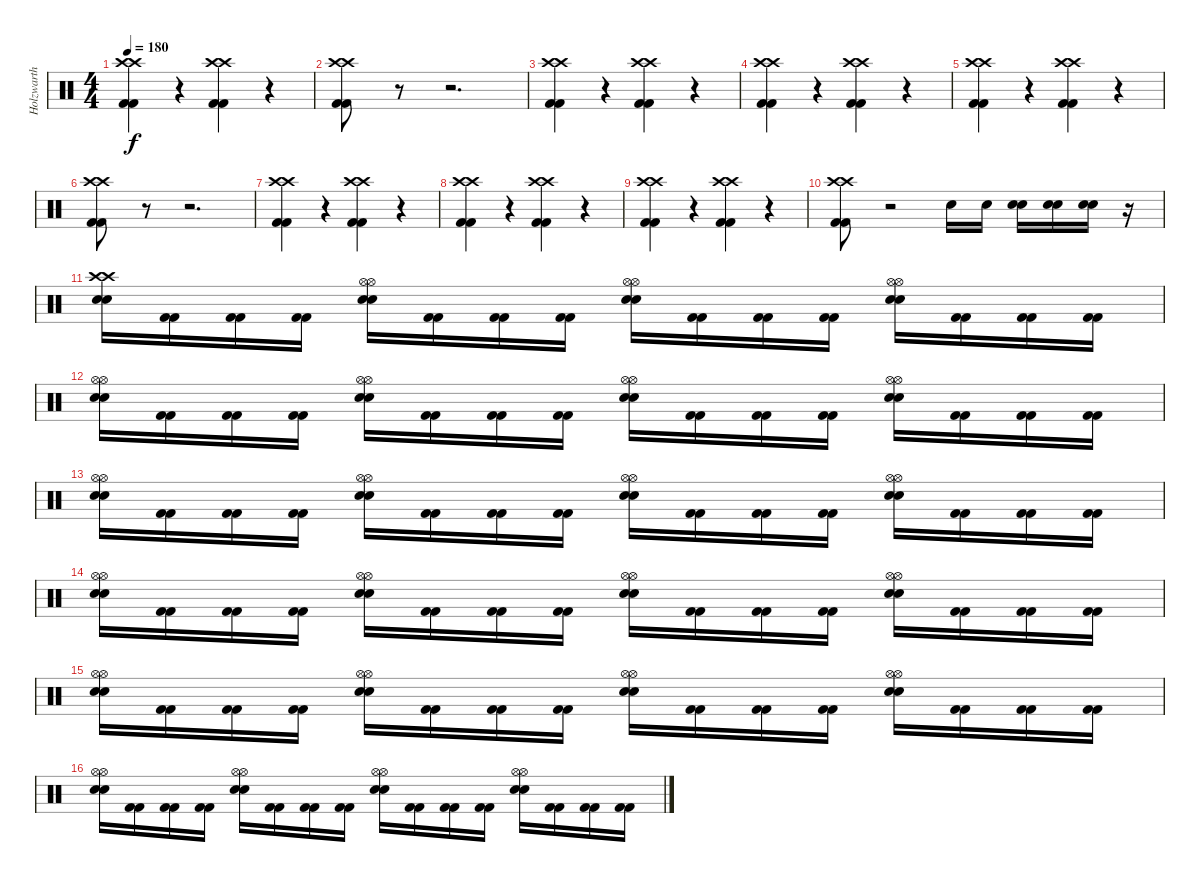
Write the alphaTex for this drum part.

\track ("Holzwarth" "Holzwarth") {instrument percussion}
\staff {score}
\articulation defaults
\ts (4 4)
\tempo 180
\clef neutral
\ks c
("Kick (hit) 2" "Kick (hit) 2" "Crash high (hit)" "Crash high (hit)").4{dy f} r.4 ("Kick (hit) 2" "Kick (hit) 2" "Crash high (hit)" "Crash high (hit)").4 r.4 |
("Kick (hit) 2" "Kick (hit) 2" "Crash high (hit)" "Crash high (hit)").8 r.8 r.2{d} |
("Kick (hit) 2" "Kick (hit) 2" "Crash high (hit)" "Crash high (hit)").4 r.4 ("Kick (hit) 2" "Kick (hit) 2" "Crash high (hit)" "Crash high (hit)").4 r.4 |
("Kick (hit) 2" "Kick (hit) 2" "Crash high (hit)" "Crash high (hit)").4 r.4 ("Kick (hit) 2" "Kick (hit) 2" "Crash high (hit)" "Crash high (hit)").4 r.4 |
("Kick (hit) 2" "Kick (hit) 2" "Crash high (hit)" "Crash high (hit)").4 r.4 ("Kick (hit) 2" "Kick (hit) 2" "Crash high (hit)" "Crash high (hit)").4 r.4 |
("Kick (hit) 2" "Kick (hit) 2" "Crash high (hit)" "Crash high (hit)").8 r.8 r.2{d} |
("Kick (hit) 2" "Kick (hit) 2" "Crash high (hit)" "Crash high (hit)").4 r.4 ("Kick (hit) 2" "Kick (hit) 2" "Crash high (hit)" "Crash high (hit)").4 r.4 |
("Kick (hit) 2" "Kick (hit) 2" "Crash high (hit)" "Crash high (hit)").4 r.4 ("Kick (hit) 2" "Kick (hit) 2" "Crash high (hit)" "Crash high (hit)").4 r.4 |
("Kick (hit) 2" "Kick (hit) 2" "Crash high (hit)" "Crash high (hit)").4 r.4 ("Kick (hit) 2" "Kick (hit) 2" "Crash high (hit)" "Crash high (hit)").4 r.4 |
("Kick (hit) 2" "Kick (hit) 2" "Crash high (hit)" "Crash high (hit)").8 r.2 "Snare (hit) 2".16 "Snare (hit) 2".16 ("Snare (hit) 2" "Snare (hit) 2").16 ("Snare (hit) 2" "Snare (hit) 2").16 ("Snare (hit) 2" "Snare (hit) 2").16 r.16 |
("Snare (hit) 2" "Snare (hit) 2" "Crash high (hit)" "Crash high (hit)").16 ("Kick (hit) 2" "Kick (hit) 2").16 ("Kick (hit) 2" "Kick (hit) 2").16 ("Kick (hit) 2" "Kick (hit) 2").16 ("Snare (hit) 2" "Snare (hit) 2" "Hi-Hat (open)" "Hi-Hat (open)").16 ("Kick (hit) 2" "Kick (hit) 2").16 ("Kick (hit) 2" "Kick (hit) 2").16 ("Kick (hit) 2" "Kick (hit) 2").16 ("Snare (hit) 2" "Snare (hit) 2" "Hi-Hat (open)" "Hi-Hat (open)").16 ("Kick (hit) 2" "Kick (hit) 2").16 ("Kick (hit) 2" "Kick (hit) 2").16 ("Kick (hit) 2" "Kick (hit) 2").16 ("Snare (hit) 2" "Snare (hit) 2" "Hi-Hat (open)" "Hi-Hat (open)").16 ("Kick (hit) 2" "Kick (hit) 2").16 ("Kick (hit) 2" "Kick (hit) 2").16 ("Kick (hit) 2" "Kick (hit) 2").16 |
("Snare (hit) 2" "Snare (hit) 2" "Hi-Hat (open)" "Hi-Hat (open)").16 ("Kick (hit) 2" "Kick (hit) 2").16 ("Kick (hit) 2" "Kick (hit) 2").16 ("Kick (hit) 2" "Kick (hit) 2").16 ("Snare (hit) 2" "Snare (hit) 2" "Hi-Hat (open)" "Hi-Hat (open)").16 ("Kick (hit) 2" "Kick (hit) 2").16 ("Kick (hit) 2" "Kick (hit) 2").16 ("Kick (hit) 2" "Kick (hit) 2").16 ("Snare (hit) 2" "Snare (hit) 2" "Hi-Hat (open)" "Hi-Hat (open)").16 ("Kick (hit) 2" "Kick (hit) 2").16 ("Kick (hit) 2" "Kick (hit) 2").16 ("Kick (hit) 2" "Kick (hit) 2").16 ("Snare (hit) 2" "Snare (hit) 2" "Hi-Hat (open)" "Hi-Hat (open)").16 ("Kick (hit) 2" "Kick (hit) 2").16 ("Kick (hit) 2" "Kick (hit) 2").16 ("Kick (hit) 2" "Kick (hit) 2").16 |
("Snare (hit) 2" "Snare (hit) 2" "Hi-Hat (open)" "Hi-Hat (open)").16 ("Kick (hit) 2" "Kick (hit) 2").16 ("Kick (hit) 2" "Kick (hit) 2").16 ("Kick (hit) 2" "Kick (hit) 2").16 ("Snare (hit) 2" "Snare (hit) 2" "Hi-Hat (open)" "Hi-Hat (open)").16 ("Kick (hit) 2" "Kick (hit) 2").16 ("Kick (hit) 2" "Kick (hit) 2").16 ("Kick (hit) 2" "Kick (hit) 2").16 ("Snare (hit) 2" "Snare (hit) 2" "Hi-Hat (open)" "Hi-Hat (open)").16 ("Kick (hit) 2" "Kick (hit) 2").16 ("Kick (hit) 2" "Kick (hit) 2").16 ("Kick (hit) 2" "Kick (hit) 2").16 ("Snare (hit) 2" "Snare (hit) 2" "Hi-Hat (open)" "Hi-Hat (open)").16 ("Kick (hit) 2" "Kick (hit) 2").16 ("Kick (hit) 2" "Kick (hit) 2").16 ("Kick (hit) 2" "Kick (hit) 2").16 |
("Snare (hit) 2" "Snare (hit) 2" "Hi-Hat (open)" "Hi-Hat (open)").16 ("Kick (hit) 2" "Kick (hit) 2").16 ("Kick (hit) 2" "Kick (hit) 2").16 ("Kick (hit) 2" "Kick (hit) 2").16 ("Snare (hit) 2" "Snare (hit) 2" "Hi-Hat (open)" "Hi-Hat (open)").16 ("Kick (hit) 2" "Kick (hit) 2").16 ("Kick (hit) 2" "Kick (hit) 2").16 ("Kick (hit) 2" "Kick (hit) 2").16 ("Snare (hit) 2" "Snare (hit) 2" "Hi-Hat (open)" "Hi-Hat (open)").16 ("Kick (hit) 2" "Kick (hit) 2").16 ("Kick (hit) 2" "Kick (hit) 2").16 ("Kick (hit) 2" "Kick (hit) 2").16 ("Snare (hit) 2" "Snare (hit) 2" "Hi-Hat (open)" "Hi-Hat (open)").16 ("Kick (hit) 2" "Kick (hit) 2").16 ("Kick (hit) 2" "Kick (hit) 2").16 ("Kick (hit) 2" "Kick (hit) 2").16 |
("Snare (hit) 2" "Snare (hit) 2" "Hi-Hat (open)" "Hi-Hat (open)").16 ("Kick (hit) 2" "Kick (hit) 2").16 ("Kick (hit) 2" "Kick (hit) 2").16 ("Kick (hit) 2" "Kick (hit) 2").16 ("Snare (hit) 2" "Snare (hit) 2" "Hi-Hat (open)" "Hi-Hat (open)").16 ("Kick (hit) 2" "Kick (hit) 2").16 ("Kick (hit) 2" "Kick (hit) 2").16 ("Kick (hit) 2" "Kick (hit) 2").16 ("Snare (hit) 2" "Snare (hit) 2" "Hi-Hat (open)" "Hi-Hat (open)").16 ("Kick (hit) 2" "Kick (hit) 2").16 ("Kick (hit) 2" "Kick (hit) 2").16 ("Kick (hit) 2" "Kick (hit) 2").16 ("Snare (hit) 2" "Snare (hit) 2" "Hi-Hat (open)" "Hi-Hat (open)").16 ("Kick (hit) 2" "Kick (hit) 2").16 ("Kick (hit) 2" "Kick (hit) 2").16 ("Kick (hit) 2" "Kick (hit) 2").16 |
("Snare (hit) 2" "Snare (hit) 2" "Hi-Hat (open)" "Hi-Hat (open)").16 ("Kick (hit) 2" "Kick (hit) 2").16 ("Kick (hit) 2" "Kick (hit) 2").16 ("Kick (hit) 2" "Kick (hit) 2").16 ("Snare (hit) 2" "Snare (hit) 2" "Hi-Hat (open)" "Hi-Hat (open)").16 ("Kick (hit) 2" "Kick (hit) 2").16 ("Kick (hit) 2" "Kick (hit) 2").16 ("Kick (hit) 2" "Kick (hit) 2").16 ("Snare (hit) 2" "Snare (hit) 2" "Hi-Hat (open)" "Hi-Hat (open)").16 ("Kick (hit) 2" "Kick (hit) 2").16 ("Kick (hit) 2" "Kick (hit) 2").16 ("Kick (hit) 2" "Kick (hit) 2").16 ("Snare (hit) 2" "Snare (hit) 2" "Hi-Hat (open)" "Hi-Hat (open)").16 ("Kick (hit) 2" "Kick (hit) 2").16 ("Kick (hit) 2" "Kick (hit) 2").16 ("Kick (hit) 2" "Kick (hit) 2").16
